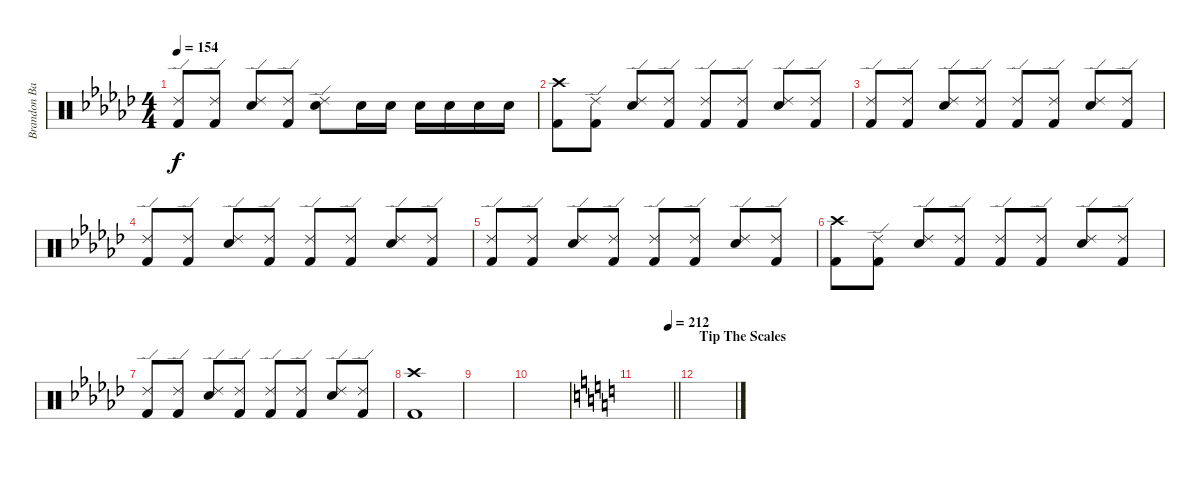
\track ("Brandon Barnes - Drums" "Brandon Ba") {instrument percussion}
\staff {score}
\articulation defaults
\ts (4 4)
\tempo 154
\clef neutral
\ks gb
("Kick (hit) 2" "Ride (edge) 2").8{dy f} ("Kick (hit) 2" "Ride (edge) 2").8 ("Snare (hit) 2" "Ride (edge) 2").8 ("Kick (hit) 2" "Ride (edge) 2").8 ("Snare (hit) 2" "Ride (edge) 2").8 "Snare (hit) 2".16 "Snare (hit) 2".16 "Snare (hit) 2".16 "Snare (hit) 2".16 "Snare (hit) 2".16 "Snare (hit) 2".16 |
("Crash high (hit)" "Kick (hit) 2").8 ("Kick (hit) 2" "Ride (edge) 2").8 ("Snare (hit) 2" "Ride (edge) 2").8 ("Kick (hit) 2" "Ride (edge) 2").8 ("Kick (hit) 2" "Ride (edge) 2").8 ("Kick (hit) 2" "Ride (edge) 2").8 ("Snare (hit) 2" "Ride (edge) 2").8 ("Kick (hit) 2" "Ride (edge) 2").8 |
("Kick (hit) 2" "Ride (edge) 2").8 ("Kick (hit) 2" "Ride (edge) 2").8 ("Snare (hit) 2" "Ride (edge) 2").8 ("Kick (hit) 2" "Ride (edge) 2").8 ("Kick (hit) 2" "Ride (edge) 2").8 ("Kick (hit) 2" "Ride (edge) 2").8 ("Snare (hit) 2" "Ride (edge) 2").8 ("Kick (hit) 2" "Ride (edge) 2").8 |
("Kick (hit) 2" "Ride (edge) 2").8 ("Kick (hit) 2" "Ride (edge) 2").8 ("Snare (hit) 2" "Ride (edge) 2").8 ("Kick (hit) 2" "Ride (edge) 2").8 ("Kick (hit) 2" "Ride (edge) 2").8 ("Kick (hit) 2" "Ride (edge) 2").8 ("Snare (hit) 2" "Ride (edge) 2").8 ("Kick (hit) 2" "Ride (edge) 2").8 |
("Kick (hit) 2" "Ride (edge) 2").8 ("Kick (hit) 2" "Ride (edge) 2").8 ("Snare (hit) 2" "Ride (edge) 2").8 ("Kick (hit) 2" "Ride (edge) 2").8 ("Kick (hit) 2" "Ride (edge) 2").8 ("Kick (hit) 2" "Ride (edge) 2").8 ("Snare (hit) 2" "Ride (edge) 2").8 ("Kick (hit) 2" "Ride (edge) 2").8 |
("Crash high (hit)" "Kick (hit) 2").8 ("Kick (hit) 2" "Ride (edge) 2").8 ("Snare (hit) 2" "Ride (edge) 2").8 ("Kick (hit) 2" "Ride (edge) 2").8 ("Kick (hit) 2" "Ride (edge) 2").8 ("Kick (hit) 2" "Ride (edge) 2").8 ("Snare (hit) 2" "Ride (edge) 2").8 ("Kick (hit) 2" "Ride (edge) 2").8 |
("Kick (hit) 2" "Ride (edge) 2").8 ("Kick (hit) 2" "Ride (edge) 2").8 ("Snare (hit) 2" "Ride (edge) 2").8 ("Kick (hit) 2" "Ride (edge) 2").8 ("Kick (hit) 2" "Ride (edge) 2").8 ("Kick (hit) 2" "Ride (edge) 2").8 ("Snare (hit) 2" "Ride (edge) 2").8 ("Kick (hit) 2" "Ride (edge) 2").8 |
("Crash high (hit)" "Kick (hit) 2").1 |
|
|
\tempo (212 0.875)
\barLineRight lightlight
\ks c
|
\section ("" "Tip The Scales")
